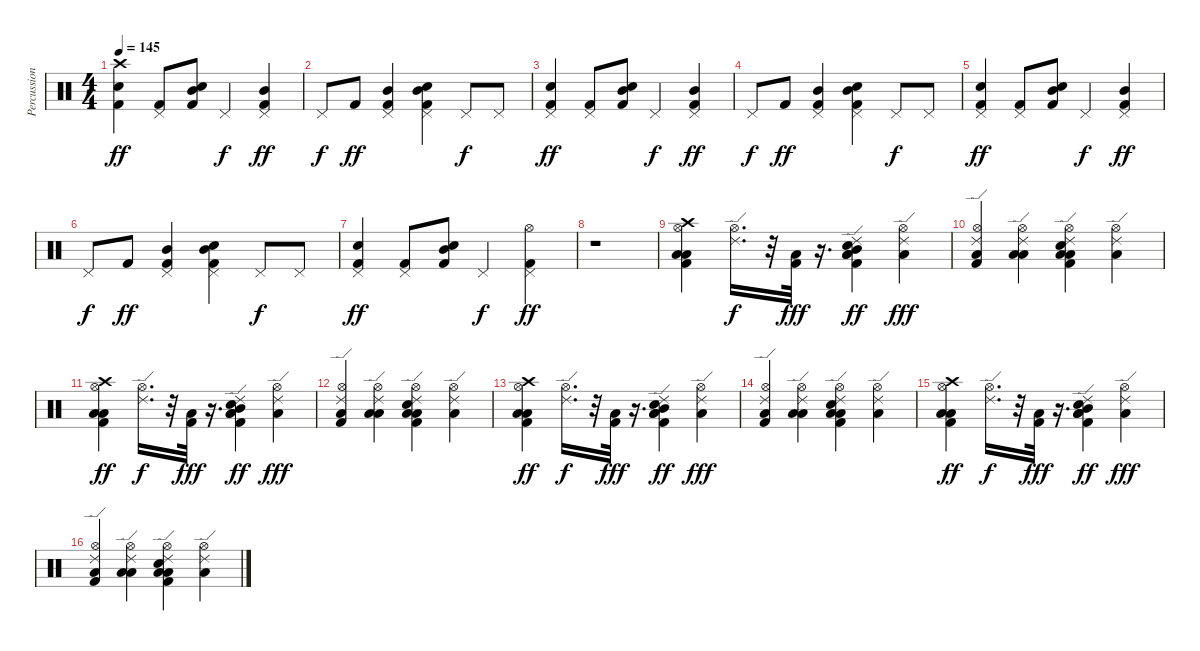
\track ("Percussion" "Percussion") {instrument percussion}
\staff {score}
\articulation defaults
\ts (4 4)
\tempo 145
\clef neutral
\ks c
("Crash high (hit)" "Snare (hit) 2" "Kick (hit) 2").4{dy ff} ("Pedal Hi-Hat (hit)" "Kick (hit) 2").8 ("Mid Tom (hit)" "Snare (hit) 2" "Kick (hit) 2").8 "Pedal Hi-Hat (hit)".4{dy f} ("Pedal Hi-Hat (hit)" "Mid Tom (hit)" "Kick (hit) 2").4{dy ff} |
"Pedal Hi-Hat (hit)".8{dy f} "Kick (hit) 2".8{dy ff} ("Pedal Hi-Hat (hit)" "Mid Tom (hit)" "Kick (hit) 2").4 ("Pedal Hi-Hat (hit)" "Mid Tom (hit)" "Snare (hit) 2" "Kick (hit) 2").4 "Pedal Hi-Hat (hit)".8{dy f} "Pedal Hi-Hat (hit)".8 |
("Pedal Hi-Hat (hit)" "Snare (hit) 2" "Kick (hit) 2").4{dy ff} ("Pedal Hi-Hat (hit)" "Kick (hit) 2").8 ("Mid Tom (hit)" "Snare (hit) 2" "Kick (hit) 2").8 "Pedal Hi-Hat (hit)".4{dy f} ("Pedal Hi-Hat (hit)" "Mid Tom (hit)" "Kick (hit) 2").4{dy ff} |
"Pedal Hi-Hat (hit)".8{dy f} "Kick (hit) 2".8{dy ff} ("Pedal Hi-Hat (hit)" "Mid Tom (hit)" "Kick (hit) 2").4 ("Pedal Hi-Hat (hit)" "Mid Tom (hit)" "Snare (hit) 2" "Kick (hit) 2").4 "Pedal Hi-Hat (hit)".8{dy f} "Pedal Hi-Hat (hit)".8 |
("Pedal Hi-Hat (hit)" "Snare (hit) 2" "Kick (hit) 2").4{dy ff} ("Pedal Hi-Hat (hit)" "Kick (hit) 2").8 ("Mid Tom (hit)" "Snare (hit) 2" "Kick (hit) 2").8 "Pedal Hi-Hat (hit)".4{dy f} ("Pedal Hi-Hat (hit)" "Mid Tom (hit)" "Kick (hit) 2").4{dy ff} |
"Pedal Hi-Hat (hit)".8{dy f} "Kick (hit) 2".8{dy ff} ("Pedal Hi-Hat (hit)" "Mid Tom (hit)" "Kick (hit) 2").4 ("Pedal Hi-Hat (hit)" "Mid Tom (hit)" "Snare (hit) 2" "Kick (hit) 2").4 "Pedal Hi-Hat (hit)".8{dy f} "Pedal Hi-Hat (hit)".8 |
("Pedal Hi-Hat (hit)" "Snare (hit) 2" "Kick (hit) 2").4{dy ff} ("Pedal Hi-Hat (hit)" "Kick (hit) 2").8 ("Mid Tom (hit)" "Snare (hit) 2" "Kick (hit) 2").8 "Pedal Hi-Hat (hit)".4{dy f} ("Pedal Hi-Hat (hit)" "Hi-Hat (open)" "Kick (hit) 2").4{dy ff} |
r.1 |
("Crash high (hit)" "Hi-Hat (open)" "Low Tom (hit)" "Low Floor Tom (hit)" "Kick (hit) 2").4 ("Ride (edge) 2" "Hi-Hat (open)").16{d dy f} r.32 ("Low Floor Tom (hit)" "Kick (hit) 2").32{dy fff} r.16{d} ("Ride (edge) 2" "Mid Tom (hit)" "Low Tom (hit)" "Snare (hit) 2" "Low Floor Tom (hit)" "Kick (hit) 2").4{dy ff} ("Ride (edge) 2" "Hi-Hat (open)" "Low Floor Tom (hit)").4{dy fff} |
("Ride (edge) 2" "Hi-Hat (open)" "Low Floor Tom (hit)" "Kick (hit) 2").4 ("Ride (edge) 2" "Hi-Hat (open)" "Low Tom (hit)" "Low Floor Tom (hit)").4 ("Ride (edge) 2" "Hi-Hat (open)" "Snare (hit) 2" "Low Tom (hit)" "Low Floor Tom (hit)" "Kick (hit) 2").4 ("Ride (edge) 2" "Hi-Hat (open)" "Low Floor Tom (hit)").4 |
("Crash high (hit)" "Hi-Hat (open)" "Low Tom (hit)" "Low Floor Tom (hit)" "Kick (hit) 2").4{dy ff} ("Ride (edge) 2" "Hi-Hat (open)").16{d dy f} r.32 ("Low Floor Tom (hit)" "Kick (hit) 2").32{dy fff} r.16{d} ("Ride (edge) 2" "Mid Tom (hit)" "Low Tom (hit)" "Snare (hit) 2" "Low Floor Tom (hit)" "Kick (hit) 2").4{dy ff} ("Ride (edge) 2" "Hi-Hat (open)" "Low Floor Tom (hit)").4{dy fff} |
("Ride (edge) 2" "Hi-Hat (open)" "Low Floor Tom (hit)" "Kick (hit) 2").4 ("Ride (edge) 2" "Hi-Hat (open)" "Low Tom (hit)" "Low Floor Tom (hit)").4 ("Ride (edge) 2" "Hi-Hat (open)" "Snare (hit) 2" "Low Tom (hit)" "Low Floor Tom (hit)" "Kick (hit) 2").4 ("Ride (edge) 2" "Hi-Hat (open)" "Low Floor Tom (hit)").4 |
("Crash high (hit)" "Hi-Hat (open)" "Low Tom (hit)" "Low Floor Tom (hit)" "Kick (hit) 2").4{dy ff} ("Ride (edge) 2" "Hi-Hat (open)").16{d dy f} r.32 ("Low Floor Tom (hit)" "Kick (hit) 2").32{dy fff} r.16{d} ("Ride (edge) 2" "Mid Tom (hit)" "Low Tom (hit)" "Snare (hit) 2" "Low Floor Tom (hit)" "Kick (hit) 2").4{dy ff} ("Ride (edge) 2" "Hi-Hat (open)" "Low Floor Tom (hit)").4{dy fff} |
("Ride (edge) 2" "Hi-Hat (open)" "Low Floor Tom (hit)" "Kick (hit) 2").4 ("Ride (edge) 2" "Hi-Hat (open)" "Low Tom (hit)" "Low Floor Tom (hit)").4 ("Ride (edge) 2" "Hi-Hat (open)" "Snare (hit) 2" "Low Tom (hit)" "Low Floor Tom (hit)" "Kick (hit) 2").4 ("Ride (edge) 2" "Hi-Hat (open)" "Low Floor Tom (hit)").4 |
("Crash high (hit)" "Hi-Hat (open)" "Low Tom (hit)" "Low Floor Tom (hit)" "Kick (hit) 2").4{dy ff} ("Ride (edge) 2" "Hi-Hat (open)").16{d dy f} r.32 ("Low Floor Tom (hit)" "Kick (hit) 2").32{dy fff} r.16{d} ("Ride (edge) 2" "Mid Tom (hit)" "Low Tom (hit)" "Snare (hit) 2" "Low Floor Tom (hit)" "Kick (hit) 2").4{dy ff} ("Ride (edge) 2" "Hi-Hat (open)" "Low Floor Tom (hit)").4{dy fff} |
("Ride (edge) 2" "Hi-Hat (open)" "Low Floor Tom (hit)" "Kick (hit) 2").4 ("Ride (edge) 2" "Hi-Hat (open)" "Low Tom (hit)" "Low Floor Tom (hit)").4 ("Ride (edge) 2" "Hi-Hat (open)" "Snare (hit) 2" "Low Tom (hit)" "Low Floor Tom (hit)" "Kick (hit) 2").4 ("Ride (edge) 2" "Hi-Hat (open)" "Low Floor Tom (hit)").4
